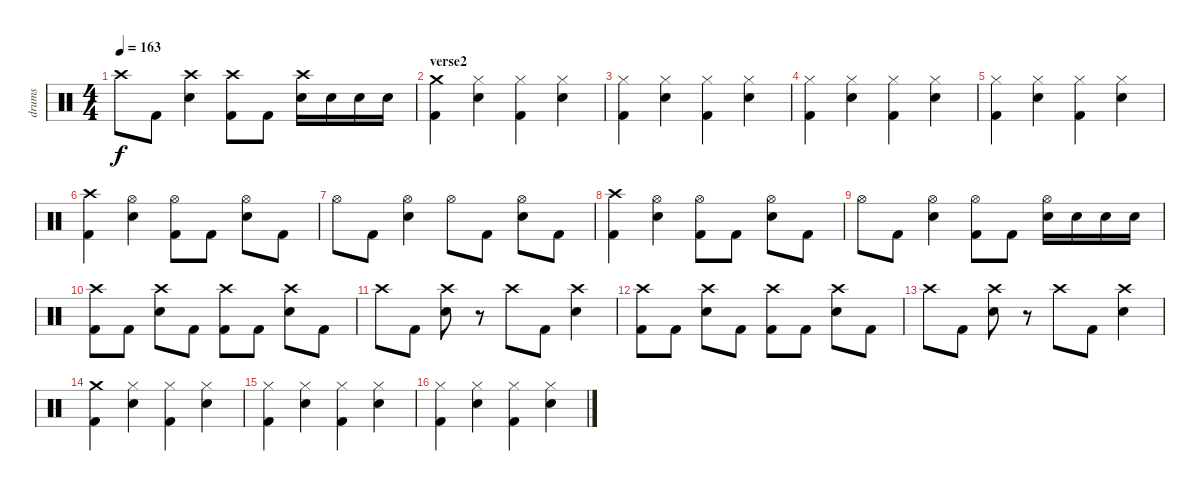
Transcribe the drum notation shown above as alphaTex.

\track ("drums" "drums") {instrument percussion}
\staff {score}
\articulation defaults
\ts (4 4)
\tempo 163
\clef neutral
\ks c "Crash high (hit)".8{dy f} "Kick (hit) 2".8
("Crash high (hit)" "Electric Snare (hit)").4 ("Crash high (hit)" "Kick (hit) 2").8 "Kick (hit) 2".8 ("Crash high (hit)" "Electric Snare (hit)").16 "Electric Snare (hit)".16 "Electric Snare (hit)".16 "Electric Snare (hit)".16 |
\section ("" "verse2")
("Crash medium (hit)" "Kick (hit) 2").4 ("Hi-Hat (closed)" "Electric Snare (hit)").4 ("Hi-Hat (closed)" "Kick (hit) 2").4 ("Hi-Hat (closed)" "Electric Snare (hit)").4 |
("Hi-Hat (closed)" "Kick (hit) 2").4 ("Hi-Hat (closed)" "Electric Snare (hit)").4 ("Hi-Hat (closed)" "Kick (hit) 2").4 ("Hi-Hat (closed)" "Electric Snare (hit)").4 |
("Hi-Hat (closed)" "Kick (hit) 2").4 ("Hi-Hat (closed)" "Electric Snare (hit)").4 ("Hi-Hat (closed)" "Kick (hit) 2").4 ("Hi-Hat (closed)" "Electric Snare (hit)").4 |
("Hi-Hat (closed)" "Kick (hit) 2").4 ("Hi-Hat (closed)" "Electric Snare (hit)").4 ("Hi-Hat (closed)" "Kick (hit) 2").4 ("Hi-Hat (closed)" "Electric Snare (hit)").4 |
("Crash high (hit)" "Kick (hit) 2").4 ("Hi-Hat (open)" "Electric Snare (hit)").4 ("Hi-Hat (open)" "Kick (hit) 2").8 "Kick (hit) 2".8 ("Hi-Hat (open)" "Electric Snare (hit)").8 "Kick (hit) 2".8 |
"Hi-Hat (open)".8 "Kick (hit) 2".8 ("Hi-Hat (open)" "Electric Snare (hit)").4 "Hi-Hat (open)".8 "Kick (hit) 2".8 ("Hi-Hat (open)" "Electric Snare (hit)").8 "Kick (hit) 2".8 |
("Crash high (hit)" "Kick (hit) 2").4 ("Hi-Hat (open)" "Electric Snare (hit)").4 ("Hi-Hat (open)" "Kick (hit) 2").8 "Kick (hit) 2".8 ("Hi-Hat (open)" "Electric Snare (hit)").8 "Kick (hit) 2".8 |
"Hi-Hat (open)".8 "Kick (hit) 2".8 ("Hi-Hat (open)" "Electric Snare (hit)").4 ("Hi-Hat (open)" "Kick (hit) 2").8 "Kick (hit) 2".8 ("Hi-Hat (open)" "Electric Snare (hit)").16 "Electric Snare (hit)".16 "Electric Snare (hit)".16 "Electric Snare (hit)".16 |
("Crash high (hit)" "Kick (hit) 2").8 "Kick (hit) 2".8 ("Crash high (hit)" "Electric Snare (hit)").8 "Kick (hit) 2".8 ("Crash high (hit)" "Kick (hit) 2").8 "Kick (hit) 2".8 ("Crash high (hit)" "Electric Snare (hit)").8 "Kick (hit) 2".8 |
"Crash high (hit)".8 "Kick (hit) 2".8 ("Crash high (hit)" "Electric Snare (hit)").8 r.8 "Crash high (hit)".8 "Kick (hit) 2".8 ("Crash high (hit)" "Electric Snare (hit)").4 |
("Crash high (hit)" "Kick (hit) 2").8 "Kick (hit) 2".8 ("Crash high (hit)" "Electric Snare (hit)").8 "Kick (hit) 2".8 ("Crash high (hit)" "Kick (hit) 2").8 "Kick (hit) 2".8 ("Crash high (hit)" "Electric Snare (hit)").8 "Kick (hit) 2".8 |
"Crash high (hit)".8 "Kick (hit) 2".8 ("Crash high (hit)" "Electric Snare (hit)").8 r.8 "Crash high (hit)".8 "Kick (hit) 2".8 ("Crash high (hit)" "Electric Snare (hit)").4 |
("Crash medium (hit)" "Kick (hit) 2").4 ("Hi-Hat (closed)" "Electric Snare (hit)").4 ("Hi-Hat (closed)" "Kick (hit) 2").4 ("Hi-Hat (closed)" "Electric Snare (hit)").4 |
("Hi-Hat (closed)" "Kick (hit) 2").4 ("Hi-Hat (closed)" "Electric Snare (hit)").4 ("Hi-Hat (closed)" "Kick (hit) 2").4 ("Hi-Hat (closed)" "Electric Snare (hit)").4 |
("Hi-Hat (closed)" "Kick (hit) 2").4 ("Hi-Hat (closed)" "Electric Snare (hit)").4 ("Hi-Hat (closed)" "Kick (hit) 2").4 ("Hi-Hat (closed)" "Electric Snare (hit)").4
